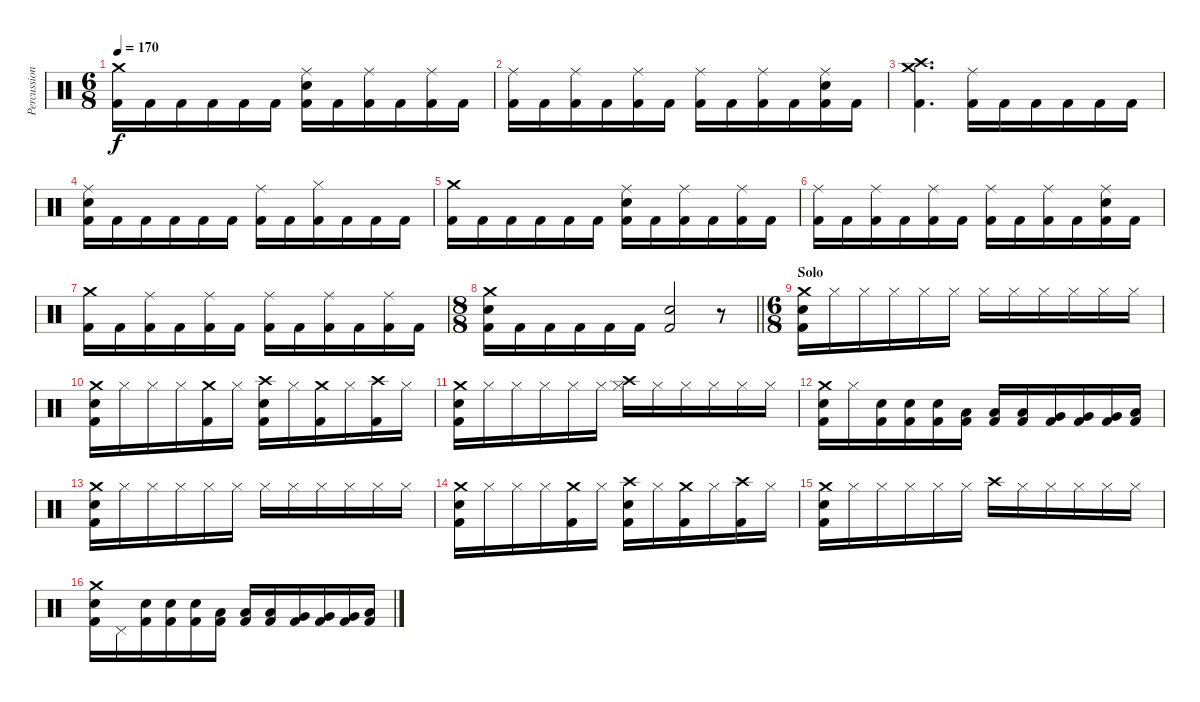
\track ("Percussions" "Percussion") {instrument percussion}
\staff {score}
\articulation defaults
\ts (6 8)
\tempo 170
\clef neutral
\ks c
("Crash medium (hit)" "Kick (hit) 2").16{dy f} "Kick (hit) 2".16 "Kick (hit) 2".16 "Kick (hit) 2".16 "Kick (hit) 2".16 "Kick (hit) 2".16 ("Electric Snare (hit)" "Ride (middle)" "Kick (hit) 2").16 "Kick (hit) 2".16 ("Ride (middle)" "Kick (hit) 2").16 "Kick (hit) 2".16 ("Ride (middle)" "Kick (hit) 2").16 "Kick (hit) 2".16 |
("Ride (middle)" "Kick (hit) 2").16 "Kick (hit) 2".16 ("Ride (middle)" "Kick (hit) 2").16 "Kick (hit) 2".16 ("Ride (middle)" "Kick (hit) 2").16 "Kick (hit) 2".16 ("Ride (middle)" "Kick (hit) 2").16 "Kick (hit) 2".16 ("Ride (middle)" "Kick (hit) 2").16 "Kick (hit) 2".16 ("Electric Snare (hit)" "Ride (middle)" "Kick (hit) 2").16 "Kick (hit) 2".16 |
("Crash high (hit)" "Crash medium (hit)" "Kick (hit) 2").4{d} ("Ride (middle)" "Kick (hit) 2").16 "Kick (hit) 2".16 "Kick (hit) 2".16 "Kick (hit) 2".16 "Kick (hit) 2".16 "Kick (hit) 2".16 |
("Electric Snare (hit)" "Ride (middle)" "Kick (hit) 2").16 "Kick (hit) 2".16 "Kick (hit) 2".16 "Kick (hit) 2".16 "Kick (hit) 2".16 "Kick (hit) 2".16 ("Ride (middle)" "Kick (hit) 2").16 "Kick (hit) 2".16 ("Hi-Hat (closed)" "Kick (hit) 2").16 "Kick (hit) 2".16 "Kick (hit) 2".16 "Kick (hit) 2".16 |
("Crash medium (hit)" "Kick (hit) 2").16 "Kick (hit) 2".16 "Kick (hit) 2".16 "Kick (hit) 2".16 "Kick (hit) 2".16 "Kick (hit) 2".16 ("Electric Snare (hit)" "Ride (middle)" "Kick (hit) 2").16 "Kick (hit) 2".16 ("Ride (middle)" "Kick (hit) 2").16 "Kick (hit) 2".16 ("Ride (middle)" "Kick (hit) 2").16 "Kick (hit) 2".16 |
("Ride (middle)" "Kick (hit) 2").16 "Kick (hit) 2".16 ("Ride (middle)" "Kick (hit) 2").16 "Kick (hit) 2".16 ("Ride (middle)" "Kick (hit) 2").16 "Kick (hit) 2".16 ("Ride (middle)" "Kick (hit) 2").16 "Kick (hit) 2".16 ("Ride (middle)" "Kick (hit) 2").16 "Kick (hit) 2".16 ("Electric Snare (hit)" "Ride (middle)" "Kick (hit) 2").16 "Kick (hit) 2".16 |
("Crash medium (hit)" "Kick (hit) 2").16 "Kick (hit) 2".16 ("Ride (middle)" "Kick (hit) 2").16 "Kick (hit) 2".16 ("Ride (middle)" "Kick (hit) 2").16 "Kick (hit) 2".16 ("Ride (middle)" "Kick (hit) 2").16 "Kick (hit) 2".16 ("Ride (middle)" "Kick (hit) 2").16 "Kick (hit) 2".16 ("Ride (middle)" "Kick (hit) 2").16 "Kick (hit) 2".16 |
\ts (8 8)
\barLineRight lightlight
("Crash medium (hit)" "Electric Snare (hit)" "Kick (hit) 2").16 "Kick (hit) 2".16 "Kick (hit) 2".16 "Kick (hit) 2".16 "Kick (hit) 2".16 "Kick (hit) 2".16 ("Electric Snare (hit)" "Kick (hit) 2").2 r.8 |
\ts (6 8)
\section ("" "Solo")
("Electric Snare (hit)" "Crash medium (hit)" "Kick (hit) 2").16 "Hi-Hat (closed)".16 "Hi-Hat (closed)".16 "Hi-Hat (closed)".16 "Hi-Hat (closed)".16 "Hi-Hat (closed)".16 "Hi-Hat (closed)".16 "Hi-Hat (closed)".16 "Hi-Hat (closed)".16 "Hi-Hat (closed)".16 "Hi-Hat (closed)".16 "Hi-Hat (closed)".16 |
("Electric Snare (hit)" "Crash medium (hit)" "Kick (hit) 2").16 "Hi-Hat (closed)".16 "Hi-Hat (closed)".16 "Hi-Hat (closed)".16 ("Crash medium (hit)" "Kick (hit) 2").16 "Hi-Hat (closed)".16 ("Electric Snare (hit)" "Crash high (hit)" "Kick (hit) 2").16 "Hi-Hat (closed)".16 ("Crash medium (hit)" "Kick (hit) 2").16 "Hi-Hat (closed)".16 ("Crash high (hit)" "Kick (hit) 2").16 "Hi-Hat (closed)".16 |
("Electric Snare (hit)" "Crash medium (hit)" "Kick (hit) 2").16 "Hi-Hat (closed)".16 "Hi-Hat (closed)".16 "Hi-Hat (closed)".16 "Hi-Hat (closed)".16 "Hi-Hat (closed)".16 ("Crash high (hit)" "Hi-Hat (closed)").16 "Hi-Hat (closed)".16 "Hi-Hat (closed)".16 "Hi-Hat (closed)".16 "Hi-Hat (closed)".16 "Hi-Hat (closed)".16 |
("Crash medium (hit)" "Electric Snare (hit)" "Kick (hit) 2").16 "Hi-Hat (closed)".16 ("Electric Snare (hit)" "Kick (hit) 2").16 ("Electric Snare (hit)" "Kick (hit) 2").16 ("Electric Snare (hit)" "Kick (hit) 2").16 ("Low Tom (hit)" "Kick (hit) 2").16 ("Low Tom (hit)" "Kick (hit) 2").16 ("Low Tom (hit)" "Kick (hit) 2").16 ("Very Low Tom (hit)" "Kick (hit) 2").16 ("Very Low Tom (hit)" "Kick (hit) 2").16 ("Very Low Tom (hit)" "Kick (hit) 2").16 ("Low Floor Tom (hit)" "Kick (hit) 2").16 |
("Electric Snare (hit)" "Crash medium (hit)" "Kick (hit) 2").16 "Hi-Hat (closed)".16 "Hi-Hat (closed)".16 "Hi-Hat (closed)".16 "Hi-Hat (closed)".16 "Hi-Hat (closed)".16 "Hi-Hat (closed)".16 "Hi-Hat (closed)".16 "Hi-Hat (closed)".16 "Hi-Hat (closed)".16 "Hi-Hat (closed)".16 "Hi-Hat (closed)".16 |
("Electric Snare (hit)" "Crash medium (hit)" "Kick (hit) 2").16 "Hi-Hat (closed)".16 "Hi-Hat (closed)".16 "Hi-Hat (closed)".16 ("Crash medium (hit)" "Kick (hit) 2").16 "Hi-Hat (closed)".16 ("Electric Snare (hit)" "Crash high (hit)" "Kick (hit) 2").16 "Hi-Hat (closed)".16 ("Crash medium (hit)" "Kick (hit) 2").16 "Hi-Hat (closed)".16 ("Crash high (hit)" "Kick (hit) 2").16 "Hi-Hat (closed)".16 |
("Electric Snare (hit)" "Crash medium (hit)" "Kick (hit) 2").16 "Hi-Hat (closed)".16 "Hi-Hat (closed)".16 "Hi-Hat (closed)".16 "Hi-Hat (closed)".16 "Hi-Hat (closed)".16 "Crash high (hit)".16 "Hi-Hat (closed)".16 "Hi-Hat (closed)".16 "Hi-Hat (closed)".16 "Hi-Hat (closed)".16 "Hi-Hat (closed)".16 |
("Crash medium (hit)" "Electric Snare (hit)" "Kick (hit) 2").16 "Pedal Hi-Hat (hit)".16 ("Electric Snare (hit)" "Kick (hit) 2").16 ("Electric Snare (hit)" "Kick (hit) 2").16 ("Electric Snare (hit)" "Kick (hit) 2").16 ("Low Tom (hit)" "Kick (hit) 2").16 ("Low Tom (hit)" "Kick (hit) 2").16 ("Low Tom (hit)" "Kick (hit) 2").16 ("Very Low Tom (hit)" "Kick (hit) 2").16 ("Very Low Tom (hit)" "Kick (hit) 2").16 ("Very Low Tom (hit)" "Kick (hit) 2").16 ("Low Floor Tom (hit)" "Kick (hit) 2").16
